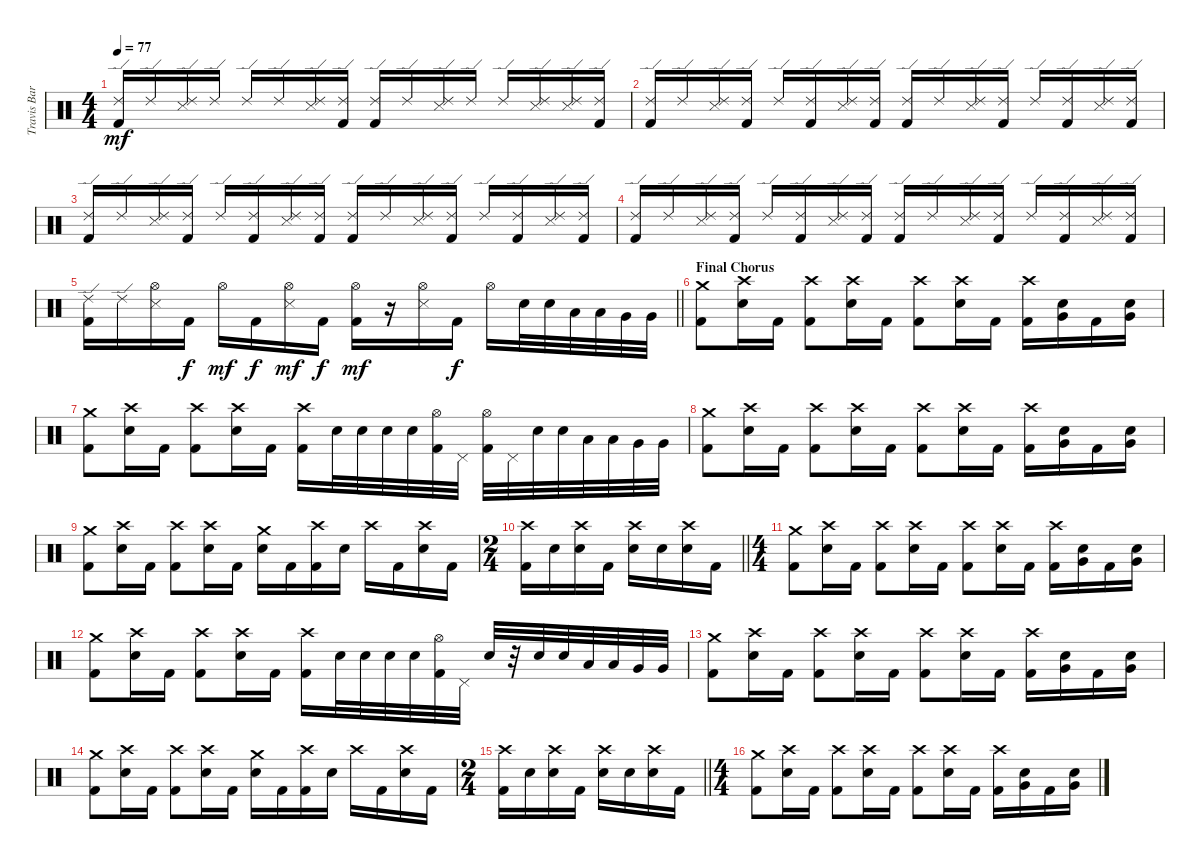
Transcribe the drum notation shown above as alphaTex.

\track ("Travis Barker" "Travis Bar") {instrument percussion}
\staff {score}
\articulation defaults
\ts (4 4)
\tempo 77
\clef neutral
\ks c
("Ride (edge) 2" "Kick (hit) 2").16{dy mf} "Ride (edge) 2".16 ("Ride (edge) 2" "Snare (side stick) 3").16 "Ride (edge) 2".16 "Ride (edge) 2".16 "Ride (edge) 2".16 ("Ride (edge) 2" "Snare (side stick) 3").16 ("Ride (edge) 2" "Kick (hit) 2").16 ("Ride (edge) 2" "Kick (hit) 2").16 "Ride (edge) 2".16 ("Ride (edge) 2" "Snare (side stick) 3").16 "Ride (edge) 2".16 "Ride (edge) 2".16 ("Ride (edge) 2" "Snare (side stick) 3").16 ("Ride (edge) 2" "Snare (side stick) 3").16 ("Ride (edge) 2" "Kick (hit) 2").16 |
("Ride (edge) 2" "Kick (hit) 2").16 "Ride (edge) 2".16 ("Ride (edge) 2" "Snare (side stick) 3").16 ("Ride (edge) 2" "Kick (hit) 2").16 "Ride (edge) 2".16 ("Ride (edge) 2" "Kick (hit) 2").16 ("Ride (edge) 2" "Snare (side stick) 3").16 ("Ride (edge) 2" "Kick (hit) 2").16 ("Ride (edge) 2" "Kick (hit) 2").16 "Ride (edge) 2".16 ("Ride (edge) 2" "Snare (side stick) 3").16 ("Ride (edge) 2" "Kick (hit) 2").16 "Ride (edge) 2".16 ("Ride (edge) 2" "Kick (hit) 2").16 ("Ride (edge) 2" "Snare (side stick) 3").16 ("Ride (edge) 2" "Kick (hit) 2").16 |
("Ride (edge) 2" "Kick (hit) 2").16 "Ride (edge) 2".16 ("Ride (edge) 2" "Snare (side stick) 3").16 ("Ride (edge) 2" "Kick (hit) 2").16 "Ride (edge) 2".16 ("Ride (edge) 2" "Kick (hit) 2").16 ("Ride (edge) 2" "Snare (side stick) 3").16 ("Ride (edge) 2" "Kick (hit) 2").16 ("Ride (edge) 2" "Kick (hit) 2").16 "Ride (edge) 2".16 ("Ride (edge) 2" "Snare (side stick) 3").16 ("Ride (edge) 2" "Kick (hit) 2").16 "Ride (edge) 2".16 ("Ride (edge) 2" "Kick (hit) 2").16 ("Ride (edge) 2" "Snare (side stick) 3").16 ("Ride (edge) 2" "Kick (hit) 2").16 |
("Ride (edge) 2" "Kick (hit) 2").16 "Ride (edge) 2".16 ("Ride (edge) 2" "Snare (side stick) 3").16 ("Ride (edge) 2" "Kick (hit) 2").16 "Ride (edge) 2".16 ("Ride (edge) 2" "Kick (hit) 2").16 ("Ride (edge) 2" "Snare (side stick) 3").16 ("Ride (edge) 2" "Kick (hit) 2").16 ("Ride (edge) 2" "Kick (hit) 2").16 "Ride (edge) 2".16 ("Ride (edge) 2" "Snare (side stick) 3").16 ("Ride (edge) 2" "Kick (hit) 2").16 "Ride (edge) 2".16 ("Ride (edge) 2" "Kick (hit) 2").16 ("Ride (edge) 2" "Snare (side stick) 3").16 ("Ride (edge) 2" "Kick (hit) 2").16 |
\barLineRight lightlight
("Ride (edge) 2" "Kick (hit) 2").16 "Ride (edge) 2".16 ("Hi-Hat (open)" "Snare (side stick) 3").16 "Kick (hit) 2".16{dy f} "Hi-Hat (open)".16{dy mf} "Kick (hit) 2".16{dy f} ("Hi-Hat (open)" "Snare (side stick) 3").16{dy mf} "Kick (hit) 2".16{dy f} ("Hi-Hat (open)" "Kick (hit) 2").16{dy mf} r.16 ("Hi-Hat (open)" "Snare (side stick) 3").16 "Kick (hit) 2".16{dy f} "Hi-Hat (open)".16 "Electric Snare (hit)".32 "Electric Snare (hit)".32 "Low Tom (hit)".32 "Low Tom (hit)".32 "Very Low Tom (hit)".32 "Very Low Tom (hit)".32 |
\section ("" "Final Chorus")
("Crash medium (hit)" "Kick (hit) 2").8 ("Crash high (hit)" "Electric Snare (hit)").16 "Kick (hit) 2".16 ("Crash high (hit)" "Kick (hit) 2").8 ("Crash high (hit)" "Electric Snare (hit)").16 "Kick (hit) 2".16 ("Crash high (hit)" "Kick (hit) 2").8 ("Crash high (hit)" "Electric Snare (hit)").16 "Kick (hit) 2".16 ("Crash high (hit)" "Kick (hit) 2").16 ("Electric Snare (hit)" "Very Low Tom (hit)").16 "Kick (hit) 2".16 ("Electric Snare (hit)" "Very Low Tom (hit)").16 |
("Crash medium (hit)" "Kick (hit) 2").8 ("Crash high (hit)" "Electric Snare (hit)").16 "Kick (hit) 2".16 ("Crash high (hit)" "Kick (hit) 2").8 ("Crash high (hit)" "Electric Snare (hit)").16 "Kick (hit) 2".16 ("Crash high (hit)" "Kick (hit) 2").16 "Electric Snare (hit)".32 "Electric Snare (hit)".32 "Electric Snare (hit)".32 "Electric Snare (hit)".32 ("Hi-Hat (open)" "Kick (hit) 2").32 "Pedal Hi-Hat (hit)".32 ("Hi-Hat (open)" "Kick (hit) 2").32 "Pedal Hi-Hat (hit)".32 "Electric Snare (hit)".32 "Electric Snare (hit)".32 "Low Tom (hit)".32 "Low Tom (hit)".32 "Very Low Tom (hit)".32 "Very Low Tom (hit)".32 |
("Crash medium (hit)" "Kick (hit) 2").8 ("Crash high (hit)" "Electric Snare (hit)").16 "Kick (hit) 2".16 ("Crash high (hit)" "Kick (hit) 2").8 ("Crash high (hit)" "Electric Snare (hit)").16 "Kick (hit) 2".16 ("Crash high (hit)" "Kick (hit) 2").8 ("Crash high (hit)" "Electric Snare (hit)").16 "Kick (hit) 2".16 ("Crash high (hit)" "Kick (hit) 2").16 ("Electric Snare (hit)" "Very Low Tom (hit)").16 "Kick (hit) 2".16 ("Electric Snare (hit)" "Very Low Tom (hit)").16 |
("Crash medium (hit)" "Kick (hit) 2").8 ("Crash high (hit)" "Electric Snare (hit)").16 "Kick (hit) 2".16 ("Crash high (hit)" "Kick (hit) 2").8 ("Crash high (hit)" "Electric Snare (hit)").16 "Kick (hit) 2".16 ("Crash medium (hit)" "Electric Snare (hit)").16 "Kick (hit) 2".16 ("Crash high (hit)" "Kick (hit) 2").16 "Electric Snare (hit)".16 "Crash high (hit)".16 "Kick (hit) 2".16 ("Crash high (hit)" "Electric Snare (hit)").16 "Kick (hit) 2".16 |
\ts (2 4)
\barLineRight lightlight
("Crash high (hit)" "Kick (hit) 2").16 "Electric Snare (hit)".16 ("Crash high (hit)" "Electric Snare (hit)").16 "Kick (hit) 2".16 ("Crash high (hit)" "Electric Snare (hit)").16 "Electric Snare (hit)".16 ("Crash high (hit)" "Electric Snare (hit)").16 "Kick (hit) 2".16 |
\ts (4 4)
("Crash medium (hit)" "Kick (hit) 2").8 ("Crash high (hit)" "Electric Snare (hit)").16 "Kick (hit) 2".16 ("Crash high (hit)" "Kick (hit) 2").8 ("Crash high (hit)" "Electric Snare (hit)").16 "Kick (hit) 2".16 ("Crash high (hit)" "Kick (hit) 2").8 ("Crash high (hit)" "Electric Snare (hit)").16 "Kick (hit) 2".16 ("Crash high (hit)" "Kick (hit) 2").16 ("Electric Snare (hit)" "Very Low Tom (hit)").16 "Kick (hit) 2".16 ("Electric Snare (hit)" "Very Low Tom (hit)").16 |
("Crash medium (hit)" "Kick (hit) 2").8 ("Crash high (hit)" "Electric Snare (hit)").16 "Kick (hit) 2".16 ("Crash high (hit)" "Kick (hit) 2").8 ("Crash high (hit)" "Electric Snare (hit)").16 "Kick (hit) 2".16 ("Crash high (hit)" "Kick (hit) 2").16 "Electric Snare (hit)".32 "Electric Snare (hit)".32 "Electric Snare (hit)".32 "Electric Snare (hit)".32 ("Hi-Hat (open)" "Kick (hit) 2").32 "Pedal Hi-Hat (hit)".32 "Electric Snare (hit)".32 r.32 "Electric Snare (hit)".32 "Electric Snare (hit)".32 "Low Tom (hit)".32 "Low Tom (hit)".32 "Very Low Tom (hit)".32 "Very Low Tom (hit)".32 |
("Crash medium (hit)" "Kick (hit) 2").8 ("Crash high (hit)" "Electric Snare (hit)").16 "Kick (hit) 2".16 ("Crash high (hit)" "Kick (hit) 2").8 ("Crash high (hit)" "Electric Snare (hit)").16 "Kick (hit) 2".16 ("Crash high (hit)" "Kick (hit) 2").8 ("Crash high (hit)" "Electric Snare (hit)").16 "Kick (hit) 2".16 ("Crash high (hit)" "Kick (hit) 2").16 ("Electric Snare (hit)" "Very Low Tom (hit)").16 "Kick (hit) 2".16 ("Electric Snare (hit)" "Very Low Tom (hit)").16 |
("Crash medium (hit)" "Kick (hit) 2").8 ("Crash high (hit)" "Electric Snare (hit)").16 "Kick (hit) 2".16 ("Crash high (hit)" "Kick (hit) 2").8 ("Crash high (hit)" "Electric Snare (hit)").16 "Kick (hit) 2".16 ("Crash medium (hit)" "Electric Snare (hit)").16 "Kick (hit) 2".16 ("Crash high (hit)" "Kick (hit) 2").16 "Electric Snare (hit)".16 "Crash high (hit)".16 "Kick (hit) 2".16 ("Crash high (hit)" "Electric Snare (hit)").16 "Kick (hit) 2".16 |
\ts (2 4)
\barLineRight lightlight
("Crash high (hit)" "Kick (hit) 2").16 "Electric Snare (hit)".16 ("Crash high (hit)" "Electric Snare (hit)").16 "Kick (hit) 2".16 ("Crash high (hit)" "Electric Snare (hit)").16 "Electric Snare (hit)".16 ("Crash high (hit)" "Electric Snare (hit)").16 "Kick (hit) 2".16 |
\ts (4 4)
("Crash medium (hit)" "Kick (hit) 2").8 ("Crash high (hit)" "Electric Snare (hit)").16 "Kick (hit) 2".16 ("Crash high (hit)" "Kick (hit) 2").8 ("Crash high (hit)" "Electric Snare (hit)").16 "Kick (hit) 2".16 ("Crash high (hit)" "Kick (hit) 2").8 ("Crash high (hit)" "Electric Snare (hit)").16 "Kick (hit) 2".16 ("Crash high (hit)" "Kick (hit) 2").16 ("Electric Snare (hit)" "Very Low Tom (hit)").16 "Kick (hit) 2".16 ("Electric Snare (hit)" "Very Low Tom (hit)").16
